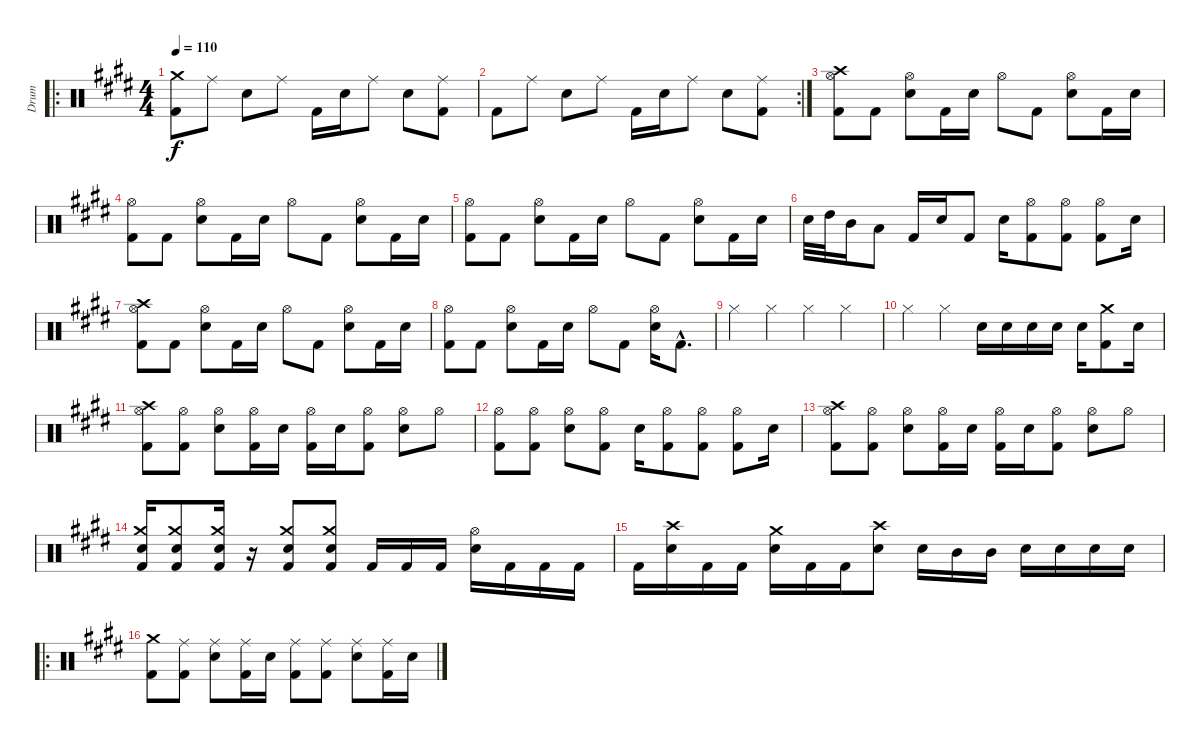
\track ("Drum" "Drum") {instrument percussion}
\staff {score}
\articulation defaults
\ro
\ts (4 4)
\tempo 110
\clef neutral
\ks c#minor
("Kick (hit) 2" "Crash medium (hit)").8{dy f} "Ride (middle)".8 "Snare (hit) 2".8 "Ride (middle)".8 "Kick (hit) 2".16 "Snare (hit) 2".16 "Ride (middle)".8 "Snare (hit) 2".8 ("Ride (middle)" "Kick (hit) 2").8 |
\rc 2 "Kick (hit) 2".8 "Ride (middle)".8 "Snare (hit) 2".8 "Ride (middle)".8 "Kick (hit) 2".16 "Snare (hit) 2".16 "Ride (middle)".8 "Snare (hit) 2".8
("Ride (middle)" "Kick (hit) 2").8 |
("Hi-Hat (open)" "Kick (hit) 2" "Crash high (hit)").8 "Kick (hit) 2".8 ("Hi-Hat (open)" "Snare (hit) 2").8 "Kick (hit) 2".16 "Snare (hit) 2".16 "Hi-Hat (open)".8 "Kick (hit) 2".8 ("Hi-Hat (open)" "Snare (hit) 2").8 "Kick (hit) 2".16 "Snare (hit) 2".16 |
("Hi-Hat (open)" "Kick (hit) 2").8 "Kick (hit) 2".8 ("Hi-Hat (open)" "Snare (hit) 2").8 "Kick (hit) 2".16 "Snare (hit) 2".16 "Hi-Hat (open)".8 "Kick (hit) 2".8 ("Hi-Hat (open)" "Snare (hit) 2").8 "Kick (hit) 2".16 "Snare (hit) 2".16 |
("Hi-Hat (open)" "Kick (hit) 2").8 "Kick (hit) 2".8 ("Hi-Hat (open)" "Snare (hit) 2").8 "Kick (hit) 2".16 "Snare (hit) 2".16 "Hi-Hat (open)".8 "Kick (hit) 2".8 ("Hi-Hat (open)" "Snare (hit) 2").8 "Kick (hit) 2".16 "Snare (hit) 2".16 |
"Snare (hit) 2".32 "High Tom (hit)".32 "Mid Tom (hit)".16 "Low Tom (hit)".8 "Kick (hit) 2".16 "Snare (hit) 2".16 "Kick (hit) 2".8 "Snare (hit) 2".16 ("Hi-Hat (open)" "Kick (hit) 2").8 ("Hi-Hat (open)" "Kick (hit) 2").8 ("Hi-Hat (open)" "Kick (hit) 2").8 "Snare (hit) 2".16 |
("Hi-Hat (open)" "Kick (hit) 2" "Crash high (hit)").8 "Kick (hit) 2".8 ("Hi-Hat (open)" "Snare (hit) 2").8 "Kick (hit) 2".16 "Snare (hit) 2".16 "Hi-Hat (open)".8 "Kick (hit) 2".8 ("Hi-Hat (open)" "Snare (hit) 2").8 "Kick (hit) 2".16 "Snare (hit) 2".16 |
("Hi-Hat (open)" "Kick (hit) 2").8 "Kick (hit) 2".8 ("Hi-Hat (open)" "Snare (hit) 2").8 "Kick (hit) 2".16 "Snare (hit) 2".16 "Hi-Hat (open)".8 "Kick (hit) 2".8 ("Hi-Hat (open)" "Snare (hit) 2").16 "Kick (hit) 2"{hac}.8{d} |
"Hi-Hat (closed)".4 "Hi-Hat (closed)".4 "Hi-Hat (closed)".4 "Hi-Hat (closed)".4 |
"Hi-Hat (closed)".4 "Hi-Hat (closed)".4 "Snare (hit) 2".16 "Snare (hit) 2".16 "Snare (hit) 2".16 "Snare (hit) 2".16 "Snare (hit) 2".16 ("Crash medium (hit)" "Kick (hit) 2").8 "Snare (hit) 2".16 |
("Hi-Hat (open)" "Kick (hit) 2" "Crash high (hit)").8 ("Hi-Hat (open)" "Kick (hit) 2").8 ("Hi-Hat (open)" "Snare (hit) 2").8 ("Hi-Hat (open)" "Kick (hit) 2").16 "Snare (hit) 2".16 ("Hi-Hat (open)" "Kick (hit) 2").16 "Snare (hit) 2".16 ("Hi-Hat (open)" "Kick (hit) 2").8 ("Hi-Hat (open)" "Snare (hit) 2").8 "Hi-Hat (open)".8 |
("Hi-Hat (open)" "Kick (hit) 2").8 ("Hi-Hat (open)" "Kick (hit) 2").8 ("Hi-Hat (open)" "Snare (hit) 2").8 ("Hi-Hat (open)" "Kick (hit) 2").8 "Snare (hit) 2".16 ("Hi-Hat (open)" "Kick (hit) 2").8 ("Hi-Hat (open)" "Kick (hit) 2").8 ("Hi-Hat (open)" "Kick (hit) 2").8 "Snare (hit) 2".16 |
("Hi-Hat (open)" "Kick (hit) 2" "Crash high (hit)").8 ("Hi-Hat (open)" "Kick (hit) 2").8 ("Hi-Hat (open)" "Snare (hit) 2").8 ("Hi-Hat (open)" "Kick (hit) 2").16 "Snare (hit) 2".16 ("Hi-Hat (open)" "Kick (hit) 2").16 "Snare (hit) 2".16 ("Hi-Hat (open)" "Kick (hit) 2").8 ("Hi-Hat (open)" "Snare (hit) 2").8 "Hi-Hat (open)".8 |
("Crash medium (hit)" "Kick (hit) 2" "Snare (hit) 2").16 ("Crash medium (hit)" "Kick (hit) 2" "Snare (hit) 2").8 ("Crash medium (hit)" "Kick (hit) 2" "Snare (hit) 2").16 r.16 ("Crash medium (hit)" "Kick (hit) 2" "Snare (hit) 2").8 ("Crash medium (hit)" "Kick (hit) 2" "Snare (hit) 2").8 "Kick (hit) 2".16 "Kick (hit) 2".16 "Kick (hit) 2".16 ("Hi-Hat (open)" "Snare (hit) 2").16 "Kick (hit) 2".16 "Kick (hit) 2".16 "Kick (hit) 2".16 |
"Kick (hit) 2".16 ("Crash high (hit)" "Snare (hit) 2").16 "Kick (hit) 2".16 "Kick (hit) 2".16 ("Crash medium (hit)" "Snare (hit) 2").16 "Kick (hit) 2".16 "Kick (hit) 2".16 ("Crash high (hit)" "Snare (hit) 2").8 "Snare (hit) 2".16 "Mid Tom (hit)".16 "Mid Tom (hit)".16 "Snare (hit) 2".16 "Snare (hit) 2".16 "Snare (hit) 2".16 "Snare (hit) 2".16 |
\ro
("Crash medium (hit)" "Kick (hit) 2").8 ("Ride (middle)" "Kick (hit) 2").8 ("Ride (middle)" "Snare (hit) 2").8 ("Ride (middle)" "Kick (hit) 2").16 "Snare (hit) 2".16 ("Ride (middle)" "Kick (hit) 2").8 ("Ride (middle)" "Kick (hit) 2").8 ("Ride (middle)" "Snare (hit) 2").8 ("Ride (middle)" "Kick (hit) 2").16 "Snare (hit) 2".16
